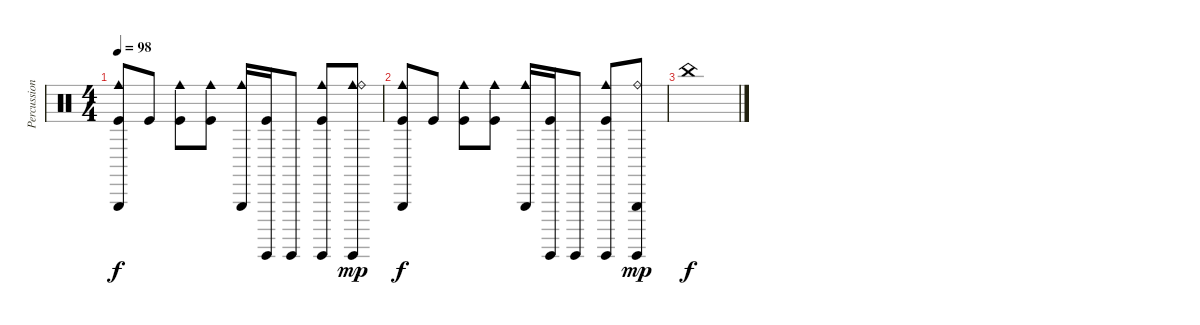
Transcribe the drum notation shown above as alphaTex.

\track ("Percussion" "Percussion") {instrument percussion}
\staff {score}
\articulation defaults
\ts (4 4)
\tempo 98
\clef neutral
\ks c
("Triangle (hit)" "Cowbell medium (hit)" "Kick (hit)").8{dy f} "Kick (hit)".8 ("Cowbell medium (hit)" "Kick (hit)").8 ("Cowbell medium (hit)" "Kick (hit)").8 ("Triangle (hit)" "Cowbell medium (hit)").16 ("Guiro (hit)" "Kick (hit)").16 "Guiro (hit)".8 ("Cowbell medium (hit)" "Guiro (hit)" "Kick (hit)").8 ("Cowbell medium (hit)" "Guiro (hit)" "Ride (bell)").8{dy mp} |
("Triangle (hit)" "Cowbell medium (hit)" "Kick (hit)").8{dy f} "Kick (hit)".8 ("Cowbell medium (hit)" "Kick (hit)").8 ("Cowbell medium (hit)" "Kick (hit)").8 ("Triangle (hit)" "Cowbell medium (hit)").16 ("Guiro (hit)" "Kick (hit)").16 "Guiro (hit)".8 ("Cowbell medium (hit)" "Guiro (hit)" "Kick (hit)").8 ("Triangle (hit)" "Guiro (hit)" "Ride (bell)").8{dy mp} |
"China (hit)".1{dy f}
